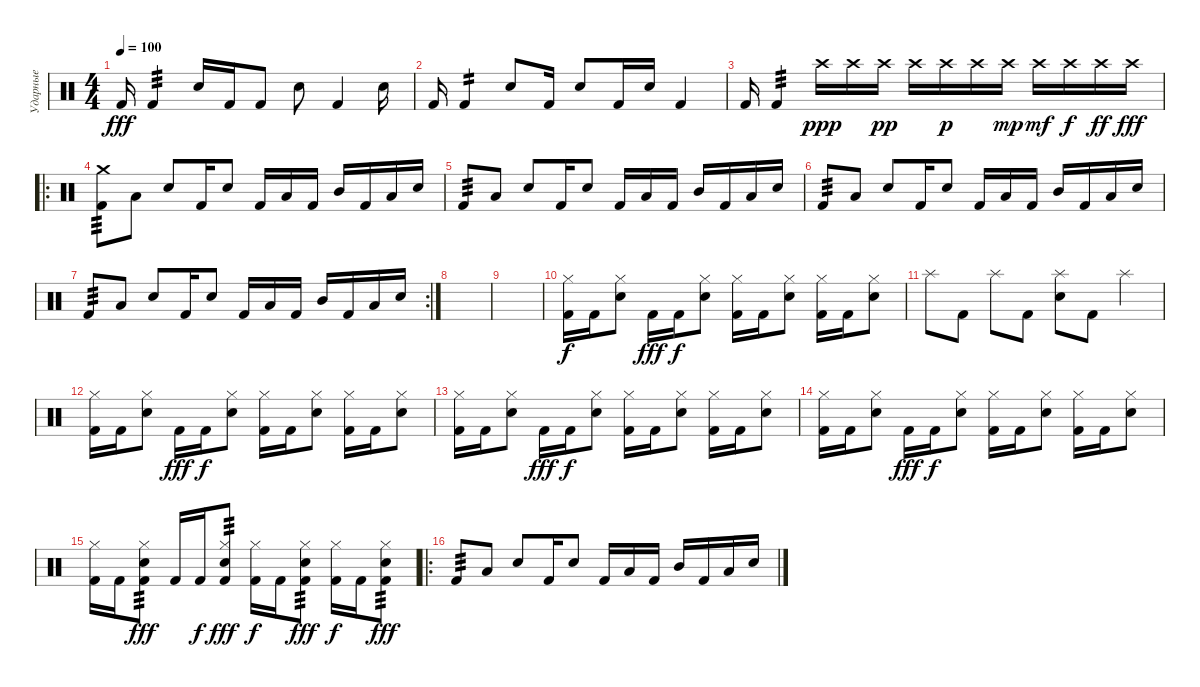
\track ("Ударные" "Ударные") {instrument percussion}
\staff {score}
\articulation defaults
\ts (4 4)
\tempo 100
\clef neutral
\ks c "Kick (hit) 2".16{dy fff} "Kick (hit) 2".4{tp 3} "Snare (hit) 2".16 "Kick (hit) 2".16 "Kick (hit) 2".8 "Snare (hit) 2".8 "Kick (hit) 2".4 "Snare (hit) 2".16
|
"Kick (hit) 2".16 "Kick (hit) 2".4{tp 2} "Snare (hit) 2".8 "Kick (hit) 2".16 "Snare (hit) 2".8 "Kick (hit) 2".16 "Snare (hit) 2".16 "Kick (hit) 2".4 |
"Kick (hit) 2".16 "Kick (hit) 2".4{tp 3} "Crash high (hit)".16{dy ppp} "Crash high (hit)".16 "Crash high (hit)".16{dy pp} "Crash high (hit)".16 "Crash high (hit)".16{dy p} "Crash high (hit)".16 "Crash high (hit)".16{dy mp} "Crash high (hit)".16{dy mf} "Crash high (hit)".16{dy f} "Crash high (hit)".16{dy ff} "Crash high (hit)".16{dy fff} |
\ro
("Kick (hit) 2" "Crash medium (hit)").8{tp 3} "Low Floor Tom (hit)".8 "Snare (hit) 2".8 "Kick (hit) 2".16 "Snare (hit) 2".8 "Kick (hit) 2".16 "Low Tom (hit)".16 "Kick (hit) 2".16 "Mid Tom (hit)".16 "Kick (hit) 2".16 "Low Tom (hit)".16 "Snare (hit) 2".16 |
"Kick (hit) 2".8{tp 3} "Low Floor Tom (hit)".8 "Snare (hit) 2".8 "Kick (hit) 2".16 "Snare (hit) 2".8 "Kick (hit) 2".16 "Low Tom (hit)".16 "Kick (hit) 2".16 "Mid Tom (hit)".16 "Kick (hit) 2".16 "Low Tom (hit)".16 "Snare (hit) 2".16 |
"Kick (hit) 2".8{tp 3} "Low Floor Tom (hit)".8 "Snare (hit) 2".8 "Kick (hit) 2".16 "Snare (hit) 2".8 "Kick (hit) 2".16 "Low Tom (hit)".16 "Kick (hit) 2".16 "Mid Tom (hit)".16 "Kick (hit) 2".16 "Low Tom (hit)".16 "Snare (hit) 2".16 |
\rc 2 "Kick (hit) 2".8{tp 3} "Low Floor Tom (hit)".8 "Snare (hit) 2".8 "Kick (hit) 2".16 "Snare (hit) 2".8 "Kick (hit) 2".16 "Low Tom (hit)".16 "Kick (hit) 2".16 "Mid Tom (hit)".16 "Kick (hit) 2".16 "Low Tom (hit)".16 "Snare (hit) 2".16
|
|
|
("Hi-Hat (closed)" "Kick (hit) 2").16{dy f} "Kick (hit) 2".16 ("Hi-Hat (closed)" "Electric Snare (hit)").8 "Kick (hit) 2".16{dy fff} "Kick (hit) 2".16{dy f} ("Hi-Hat (closed)" "Electric Snare (hit)").8 ("Hi-Hat (closed)" "Kick (hit) 2").16 "Kick (hit) 2".16 ("Hi-Hat (closed)" "Electric Snare (hit)").8 ("Hi-Hat (closed)" "Kick (hit) 2").16 "Kick (hit) 2".16 ("Hi-Hat (closed)" "Electric Snare (hit)").8 |
"Splash (hit)".8 "Kick (hit) 2".8 "Splash (hit)".8 "Kick (hit) 2".8 ("Splash (hit)" "Electric Snare (hit)").8 "Kick (hit) 2".8 "Splash (hit)".4 |
("Hi-Hat (closed)" "Kick (hit) 2").16 "Kick (hit) 2".16 ("Hi-Hat (closed)" "Electric Snare (hit)").8 "Kick (hit) 2".16{dy fff} "Kick (hit) 2".16{dy f} ("Hi-Hat (closed)" "Electric Snare (hit)").8 ("Hi-Hat (closed)" "Kick (hit) 2").16 "Kick (hit) 2".16 ("Hi-Hat (closed)" "Electric Snare (hit)").8 ("Hi-Hat (closed)" "Kick (hit) 2").16 "Kick (hit) 2".16 ("Hi-Hat (closed)" "Electric Snare (hit)").8 |
("Hi-Hat (closed)" "Kick (hit) 2").16 "Kick (hit) 2".16 ("Hi-Hat (closed)" "Electric Snare (hit)").8 "Kick (hit) 2".16{dy fff} "Kick (hit) 2".16{dy f} ("Hi-Hat (closed)" "Electric Snare (hit)").8 ("Hi-Hat (closed)" "Kick (hit) 2").16 "Kick (hit) 2".16 ("Hi-Hat (closed)" "Electric Snare (hit)").8 ("Hi-Hat (closed)" "Kick (hit) 2").16 "Kick (hit) 2".16 ("Hi-Hat (closed)" "Electric Snare (hit)").8 |
("Hi-Hat (closed)" "Kick (hit) 2").16 "Kick (hit) 2".16 ("Hi-Hat (closed)" "Electric Snare (hit)").8 "Kick (hit) 2".16{dy fff} "Kick (hit) 2".16{dy f} ("Hi-Hat (closed)" "Electric Snare (hit)").8 ("Hi-Hat (closed)" "Kick (hit) 2").16 "Kick (hit) 2".16 ("Hi-Hat (closed)" "Electric Snare (hit)").8 ("Hi-Hat (closed)" "Kick (hit) 2").16 "Kick (hit) 2".16 ("Hi-Hat (closed)" "Electric Snare (hit)").8 |
("Hi-Hat (closed)" "Kick (hit) 2").16 "Kick (hit) 2".16 ("Hi-Hat (closed)" "Electric Snare (hit)" "Kick (hit) 2").8{tp 3 dy fff} "Kick (hit) 2".16 "Kick (hit) 2".16{dy f} ("Hi-Hat (closed)" "Electric Snare (hit)" "Kick (hit) 2").8{tp 3 dy fff} ("Hi-Hat (closed)" "Kick (hit) 2").16{dy f} "Kick (hit) 2".16 ("Hi-Hat (closed)" "Electric Snare (hit)" "Kick (hit) 2").8{tp 3 dy fff} ("Hi-Hat (closed)" "Kick (hit) 2").16{dy f} "Kick (hit) 2".16 ("Hi-Hat (closed)" "Electric Snare (hit)" "Kick (hit) 2").8{tp 3 dy fff} |
\ro "Kick (hit) 2".8{tp 3} "Low Floor Tom (hit)".8 "Snare (hit) 2".8 "Kick (hit) 2".16 "Snare (hit) 2".8 "Kick (hit) 2".16 "Low Tom (hit)".16 "Kick (hit) 2".16 "Mid Tom (hit)".16 "Kick (hit) 2".16 "Low Tom (hit)".16 "Snare (hit) 2".16
